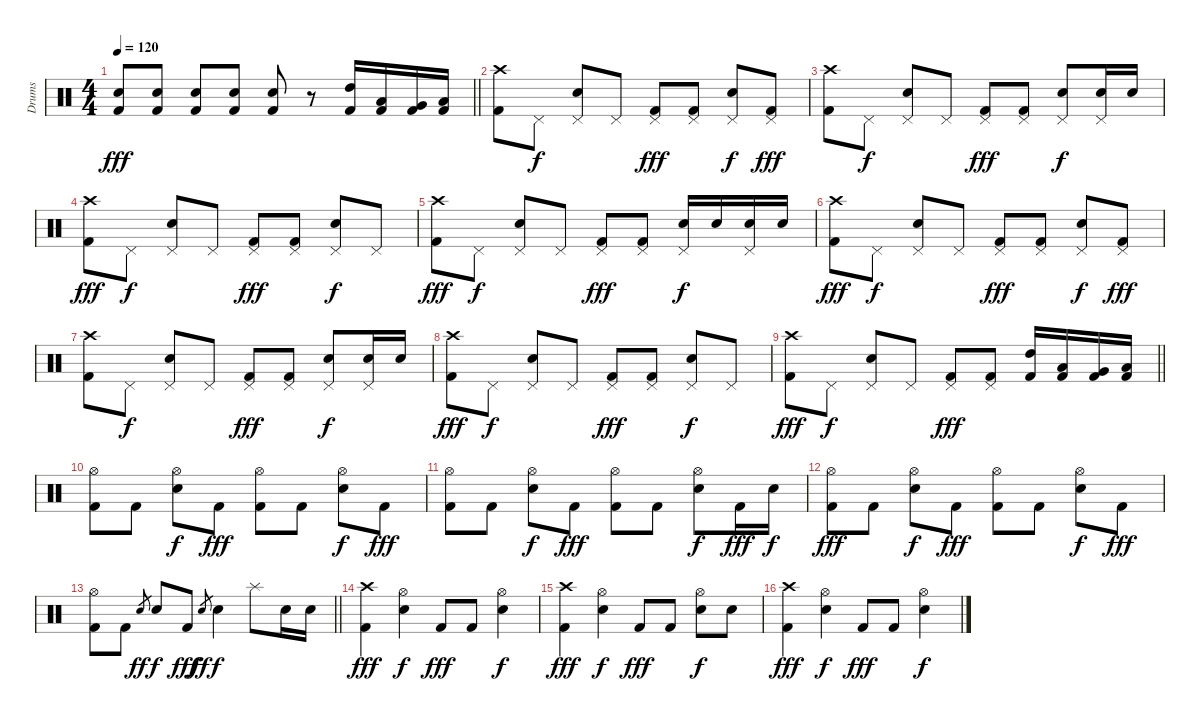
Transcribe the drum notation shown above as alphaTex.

\track ("Drums" "Drums") {instrument percussion}
\staff {score}
\articulation defaults
\ts (4 4)
\tempo 120
\clef neutral
\barLineRight lightlight
\ks c
("Snare (hit) 2" "Kick (hit) 2").8{dy fff} ("Snare (hit) 2" "Kick (hit) 2").8 ("Snare (hit) 2" "Kick (hit) 2").8 ("Snare (hit) 2" "Kick (hit) 2").8 ("Snare (hit) 2" "Kick (hit) 2").8 r.8 ("High Tom (hit)" "Kick (hit) 2").16 ("Low Tom (hit)" "Kick (hit) 2").16 ("Very Low Tom (hit)" "Kick (hit) 2").16 ("Low Floor Tom (hit)" "Kick (hit) 2").16 |
\section ("" "")
("Crash high (hit)" "Kick (hit) 2").8 "Pedal Hi-Hat (hit)".8{dy f} ("Pedal Hi-Hat (hit)" "Snare (hit) 2").8 "Pedal Hi-Hat (hit)".8 ("Pedal Hi-Hat (hit)" "Kick (hit) 2").8{dy fff} ("Pedal Hi-Hat (hit)" "Kick (hit) 2").8 ("Pedal Hi-Hat (hit)" "Snare (hit) 2").8{dy f} ("Pedal Hi-Hat (hit)" "Kick (hit) 2").8{dy fff} |
("Crash high (hit)" "Kick (hit) 2").8 "Pedal Hi-Hat (hit)".8{dy f} ("Pedal Hi-Hat (hit)" "Snare (hit) 2").8 "Pedal Hi-Hat (hit)".8 ("Pedal Hi-Hat (hit)" "Kick (hit) 2").8{dy fff} ("Pedal Hi-Hat (hit)" "Kick (hit) 2").8 ("Pedal Hi-Hat (hit)" "Snare (hit) 2").8{dy f} ("Pedal Hi-Hat (hit)" "Snare (hit) 2").16 "Snare (hit) 2".16 |
("Crash high (hit)" "Kick (hit) 2").8{dy fff} "Pedal Hi-Hat (hit)".8{dy f} ("Pedal Hi-Hat (hit)" "Snare (hit) 2").8 "Pedal Hi-Hat (hit)".8 ("Pedal Hi-Hat (hit)" "Kick (hit) 2").8{dy fff} ("Pedal Hi-Hat (hit)" "Kick (hit) 2").8 ("Pedal Hi-Hat (hit)" "Snare (hit) 2").8{dy f} "Pedal Hi-Hat (hit)".8 |
("Crash high (hit)" "Kick (hit) 2").8{dy fff} "Pedal Hi-Hat (hit)".8{dy f} ("Pedal Hi-Hat (hit)" "Snare (hit) 2").8 "Pedal Hi-Hat (hit)".8 ("Pedal Hi-Hat (hit)" "Kick (hit) 2").8{dy fff} ("Pedal Hi-Hat (hit)" "Kick (hit) 2").8 ("Pedal Hi-Hat (hit)" "Snare (hit) 2").16{dy f} "Snare (hit) 2".16 ("Pedal Hi-Hat (hit)" "Snare (hit) 2").16 "Snare (hit) 2".16 |
("Crash high (hit)" "Kick (hit) 2").8{dy fff} "Pedal Hi-Hat (hit)".8{dy f} ("Pedal Hi-Hat (hit)" "Snare (hit) 2").8 "Pedal Hi-Hat (hit)".8 ("Pedal Hi-Hat (hit)" "Kick (hit) 2").8{dy fff} ("Pedal Hi-Hat (hit)" "Kick (hit) 2").8 ("Pedal Hi-Hat (hit)" "Snare (hit) 2").8{dy f} ("Pedal Hi-Hat (hit)" "Kick (hit) 2").8{dy fff} |
("Crash high (hit)" "Kick (hit) 2").8 "Pedal Hi-Hat (hit)".8{dy f} ("Pedal Hi-Hat (hit)" "Snare (hit) 2").8 "Pedal Hi-Hat (hit)".8 ("Pedal Hi-Hat (hit)" "Kick (hit) 2").8{dy fff} ("Pedal Hi-Hat (hit)" "Kick (hit) 2").8 ("Pedal Hi-Hat (hit)" "Snare (hit) 2").8{dy f} ("Pedal Hi-Hat (hit)" "Snare (hit) 2").16 "Snare (hit) 2".16 |
("Crash high (hit)" "Kick (hit) 2").8{dy fff} "Pedal Hi-Hat (hit)".8{dy f} ("Pedal Hi-Hat (hit)" "Snare (hit) 2").8 "Pedal Hi-Hat (hit)".8 ("Pedal Hi-Hat (hit)" "Kick (hit) 2").8{dy fff} ("Pedal Hi-Hat (hit)" "Kick (hit) 2").8 ("Pedal Hi-Hat (hit)" "Snare (hit) 2").8{dy f} "Pedal Hi-Hat (hit)".8 |
\barLineRight lightlight
("Crash high (hit)" "Kick (hit) 2").8{dy fff} "Pedal Hi-Hat (hit)".8{dy f} ("Pedal Hi-Hat (hit)" "Snare (hit) 2").8 "Pedal Hi-Hat (hit)".8 ("Pedal Hi-Hat (hit)" "Kick (hit) 2").8{dy fff} ("Pedal Hi-Hat (hit)" "Kick (hit) 2").8 ("High Tom (hit)" "Kick (hit) 2").16 ("Low Tom (hit)" "Kick (hit) 2").16 ("Very Low Tom (hit)" "Kick (hit) 2").16 ("Low Floor Tom (hit)" "Kick (hit) 2").16 |
\section ("" "")
("Hi-Hat (open)" "Kick (hit) 2").8 "Kick (hit) 2".8 ("Hi-Hat (open)" "Snare (hit) 2").8{dy f} "Kick (hit) 2".8{dy fff} ("Hi-Hat (open)" "Kick (hit) 2").8 "Kick (hit) 2".8 ("Hi-Hat (open)" "Snare (hit) 2").8{dy f} "Kick (hit) 2".8{dy fff} |
("Hi-Hat (open)" "Kick (hit) 2").8 "Kick (hit) 2".8 ("Hi-Hat (open)" "Snare (hit) 2").8{dy f} "Kick (hit) 2".8{dy fff} ("Hi-Hat (open)" "Kick (hit) 2").8 "Kick (hit) 2".8 ("Hi-Hat (open)" "Snare (hit) 2").8{dy f} "Kick (hit) 2".16{dy fff} "Snare (hit) 2".16{dy f} |
("Hi-Hat (open)" "Kick (hit) 2").8{dy fff} "Kick (hit) 2".8 ("Hi-Hat (open)" "Snare (hit) 2").8{dy f} "Kick (hit) 2".8{dy fff} ("Hi-Hat (open)" "Kick (hit) 2").8 "Kick (hit) 2".8 ("Hi-Hat (open)" "Snare (hit) 2").8{dy f} "Kick (hit) 2".8{dy fff} |
\barLineRight lightlight
("Hi-Hat (open)" "Kick (hit) 2").8 "Kick (hit) 2".8 "Snare (hit) 2".8{gr dy ff} "Snare (hit) 2".8{dy f} "Kick (hit) 2".8{dy fff} "Snare (hit) 2".8{gr dy ff} "Snare (hit) 2".4{dy f} "Splash (hit)".8 "Snare (hit) 2".16 "Snare (hit) 2".16 |
\section ("" "")
("Crash high (hit)" "Kick (hit) 2").4{dy fff volume 8} ("Hi-Hat (open)" "Snare (hit) 2").4{dy f} "Kick (hit) 2".8{dy fff} "Kick (hit) 2".8 ("Hi-Hat (open)" "Snare (hit) 2").4{dy f} |
("Crash high (hit)" "Kick (hit) 2").4{dy fff} ("Hi-Hat (open)" "Snare (hit) 2").4{dy f} "Kick (hit) 2".8{dy fff} "Kick (hit) 2".8 ("Hi-Hat (open)" "Snare (hit) 2").8{dy f} "Snare (hit) 2".8 |
("Crash high (hit)" "Kick (hit) 2").4{dy fff} ("Hi-Hat (open)" "Snare (hit) 2").4{dy f} "Kick (hit) 2".8{dy fff} "Kick (hit) 2".8 ("Hi-Hat (open)" "Snare (hit) 2").4{dy f}
